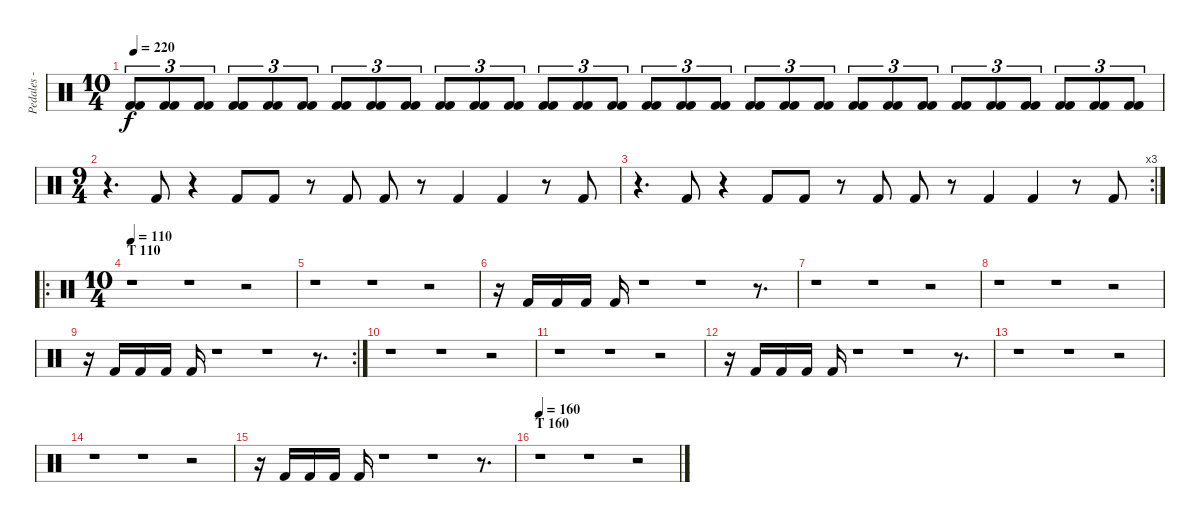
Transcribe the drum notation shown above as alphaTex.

\track ("Pedales - Compa" "Pedales - ") {instrument percussion}
\staff {score}
\articulation defaults
\ts (10 4)
\tempo 220
\clef neutral
\ks c
("Kick (hit) 2" "Kick (hit) 2").8{tu (3 2) dy f} ("Kick (hit) 2" "Kick (hit) 2").8{tu (3 2)} ("Kick (hit) 2" "Kick (hit) 2").8{tu (3 2)} ("Kick (hit) 2" "Kick (hit) 2").8{tu (3 2)} ("Kick (hit) 2" "Kick (hit) 2").8{tu (3 2)} ("Kick (hit) 2" "Kick (hit) 2").8{tu (3 2)} ("Kick (hit) 2" "Kick (hit) 2").8{tu (3 2)} ("Kick (hit) 2" "Kick (hit) 2").8{tu (3 2)} ("Kick (hit) 2" "Kick (hit) 2").8{tu (3 2)} ("Kick (hit) 2" "Kick (hit) 2").8{tu (3 2)} ("Kick (hit) 2" "Kick (hit) 2").8{tu (3 2)} ("Kick (hit) 2" "Kick (hit) 2").8{tu (3 2)} ("Kick (hit) 2" "Kick (hit) 2").8{tu (3 2)} ("Kick (hit) 2" "Kick (hit) 2").8{tu (3 2)} ("Kick (hit) 2" "Kick (hit) 2").8{tu (3 2)} ("Kick (hit) 2" "Kick (hit) 2").8{tu (3 2)} ("Kick (hit) 2" "Kick (hit) 2").8{tu (3 2)} ("Kick (hit) 2" "Kick (hit) 2").8{tu (3 2)} ("Kick (hit) 2" "Kick (hit) 2").8{tu (3 2)} ("Kick (hit) 2" "Kick (hit) 2").8{tu (3 2)} ("Kick (hit) 2" "Kick (hit) 2").8{tu (3 2)} ("Kick (hit) 2" "Kick (hit) 2").8{tu (3 2)} ("Kick (hit) 2" "Kick (hit) 2").8{tu (3 2)} ("Kick (hit) 2" "Kick (hit) 2").8{tu (3 2)} ("Kick (hit) 2" "Kick (hit) 2").8{tu (3 2)} ("Kick (hit) 2" "Kick (hit) 2").8{tu (3 2)} ("Kick (hit) 2" "Kick (hit) 2").8{tu (3 2)} ("Kick (hit) 2" "Kick (hit) 2").8{tu (3 2)} ("Kick (hit) 2" "Kick (hit) 2").8{tu (3 2)} ("Kick (hit) 2" "Kick (hit) 2").8{tu (3 2)} |
\ts (9 4)
r.4{d} "Kick (hit) 2".8 r.4 "Kick (hit) 2".8 "Kick (hit) 2".8 r.8 "Kick (hit) 2".8 "Kick (hit) 2".8 r.8 "Kick (hit) 2".4 "Kick (hit) 2".4 r.8 "Kick (hit) 2".8 |
\rc 3
r.4{d} "Kick (hit) 2".8 r.4 "Kick (hit) 2".8 "Kick (hit) 2".8 r.8 "Kick (hit) 2".8 "Kick (hit) 2".8 r.8 "Kick (hit) 2".4 "Kick (hit) 2".4 r.8 "Kick (hit) 2".8 |
\ro
\ts (10 4)
\section ("" "T 110")
\tempo 110
r.1 r.1 r.2 |
r.1 r.1 r.2 |
r.16 "Kick (hit) 2".16 "Kick (hit) 2".16 "Kick (hit) 2".16 "Kick (hit) 2".16 r.1 r.1 r.8{d} |
r.1 r.1 r.2 |
r.1 r.1 r.2 |
\rc 2
r.16 "Kick (hit) 2".16 "Kick (hit) 2".16 "Kick (hit) 2".16 "Kick (hit) 2".16 r.1 r.1 r.8{d} |
r.1 r.1 r.2 |
r.1 r.1 r.2 |
r.16 "Kick (hit) 2".16 "Kick (hit) 2".16 "Kick (hit) 2".16 "Kick (hit) 2".16 r.1 r.1 r.8{d} |
r.1 r.1 r.2 |
r.1 r.1 r.2 |
r.16 "Kick (hit) 2".16 "Kick (hit) 2".16 "Kick (hit) 2".16 "Kick (hit) 2".16 r.1 r.1 r.8{d} |
\section ("" "T 160")
\tempo 160
r.1 r.1 r.2
